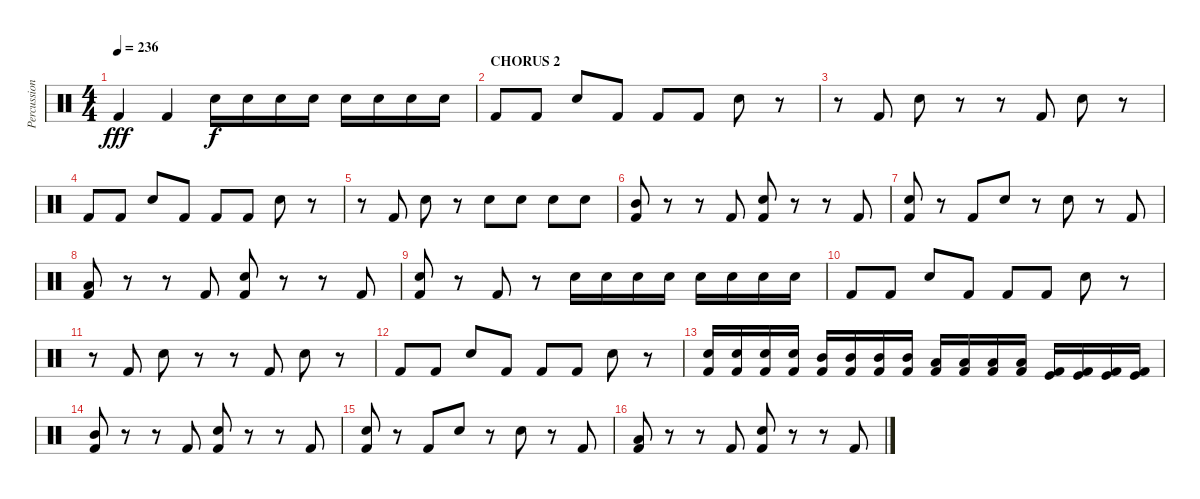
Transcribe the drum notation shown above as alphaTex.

\track ("Percussions" "Percussion") {instrument percussion}
\staff {score}
\articulation defaults
\ts (4 4)
\tempo 236
\clef neutral
\ks c "Kick (hit) 2".4{dy fff} "Kick (hit) 2".4 "Snare (hit) 2".16{dy f} "Snare (hit) 2".16 "Snare (hit) 2".16 "Snare (hit) 2".16 "Snare (hit) 2".16 "Snare (hit) 2".16 "Snare (hit) 2".16 "Snare (hit) 2".16
|
\section ("" "CHORUS 2")
"Kick (hit) 2".8 "Kick (hit) 2".8 "Snare (hit) 2".8 "Kick (hit) 2".8 "Kick (hit) 2".8 "Kick (hit) 2".8 "Snare (hit) 2".8 r.8 |
r.8 "Kick (hit) 2".8 "Snare (hit) 2".8 r.8 r.8 "Kick (hit) 2".8 "Snare (hit) 2".8 r.8 |
"Kick (hit) 2".8 "Kick (hit) 2".8 "Snare (hit) 2".8 "Kick (hit) 2".8 "Kick (hit) 2".8 "Kick (hit) 2".8 "Snare (hit) 2".8 r.8 |
r.8 "Kick (hit) 2".8 "Snare (hit) 2".8 r.8 "Snare (hit) 2".8 "Snare (hit) 2".8 "Snare (hit) 2".8 "Snare (hit) 2".8 |
("Mid Tom (hit)" "Kick (hit) 2").8 r.8 r.8 "Kick (hit) 2".8 ("Snare (hit) 2" "Kick (hit) 2").8 r.8 r.8 "Kick (hit) 2".8 |
("Snare (hit) 2" "Kick (hit) 2").8 r.8 "Kick (hit) 2".8 "Snare (hit) 2".8 r.8 "Snare (hit) 2".8 r.8 "Kick (hit) 2".8 |
("Low Tom (hit)" "Kick (hit) 2").8 r.8 r.8 "Kick (hit) 2".8 ("Snare (hit) 2" "Kick (hit) 2").8 r.8 r.8 "Kick (hit) 2".8 |
("Snare (hit) 2" "Kick (hit) 2").8 r.8 "Kick (hit) 2".8 r.8 "Snare (hit) 2".16 "Snare (hit) 2".16 "Snare (hit) 2".16 "Snare (hit) 2".16 "Snare (hit) 2".16 "Snare (hit) 2".16 "Snare (hit) 2".16 "Snare (hit) 2".16 |
"Kick (hit) 2".8 "Kick (hit) 2".8 "Snare (hit) 2".8 "Kick (hit) 2".8 "Kick (hit) 2".8 "Kick (hit) 2".8 "Snare (hit) 2".8 r.8 |
r.8 "Kick (hit) 2".8 "Snare (hit) 2".8 r.8 r.8 "Kick (hit) 2".8 "Snare (hit) 2".8 r.8 |
"Kick (hit) 2".8 "Kick (hit) 2".8 "Snare (hit) 2".8 "Kick (hit) 2".8 "Kick (hit) 2".8 "Kick (hit) 2".8 "Snare (hit) 2".8 r.8 |
("Snare (hit) 2" "Kick (hit) 2").16 ("Snare (hit) 2" "Kick (hit) 2").16 ("Snare (hit) 2" "Kick (hit) 2").16 ("Snare (hit) 2" "Kick (hit) 2").16 ("Mid Tom (hit)" "Kick (hit) 2").16 ("Mid Tom (hit)" "Kick (hit) 2").16 ("Mid Tom (hit)" "Kick (hit) 2").16 ("Mid Tom (hit)" "Kick (hit) 2").16 ("Low Tom (hit)" "Kick (hit) 2").16 ("Low Tom (hit)" "Kick (hit) 2").16 ("Low Tom (hit)" "Kick (hit) 2").16 ("Low Tom (hit)" "Kick (hit) 2").16 ("Kick (hit)" "Kick (hit) 2").16 ("Kick (hit)" "Kick (hit) 2").16 ("Kick (hit)" "Kick (hit) 2").16 ("Kick (hit)" "Kick (hit) 2").16 |
("Mid Tom (hit)" "Kick (hit) 2").8 r.8 r.8 "Kick (hit) 2".8 ("Snare (hit) 2" "Kick (hit) 2").8 r.8 r.8 "Kick (hit) 2".8 |
("Snare (hit) 2" "Kick (hit) 2").8 r.8 "Kick (hit) 2".8 "Snare (hit) 2".8 r.8 "Snare (hit) 2".8 r.8 "Kick (hit) 2".8 |
("Low Tom (hit)" "Kick (hit) 2").8 r.8 r.8 "Kick (hit) 2".8 ("Snare (hit) 2" "Kick (hit) 2").8 r.8 r.8 "Kick (hit) 2".8
